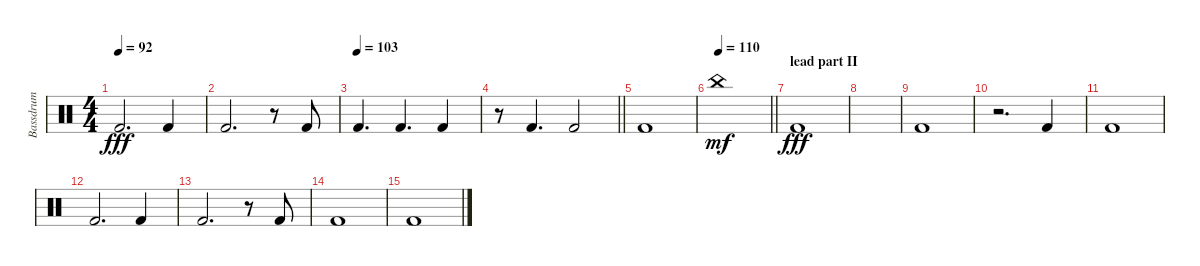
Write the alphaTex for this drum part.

\track ("Bassdrum" "Bassdrum") {instrument percussion}
\staff {score}
\articulation defaults
\ts (4 4)
\tempo 92
\clef neutral
\ks c "Kick (hit) 2".2{d dy fff} "Kick (hit) 2".4
|
"Kick (hit) 2".2{d} r.8 "Kick (hit) 2".8 |
\tempo (103)
"Kick (hit) 2".4{d} "Kick (hit) 2".4{d} "Kick (hit) 2".4 |
\barLineRight lightlight
r.8 "Kick (hit) 2".4{d} "Kick (hit) 2".2 |
\section ("" "")
"Kick (hit) 2".1 |
\tempo 110
\barLineRight lightlight "China (hit)".1{dy mf}
|
\section ("" "lead part II")
"Kick (hit) 2".1{dy fff} |
|
"Kick (hit) 2".1 |
r.2{d} "Kick (hit) 2".4 |
"Kick (hit) 2".1 |
"Kick (hit) 2".2{d} "Kick (hit) 2".4 |
"Kick (hit) 2".2{d} r.8 "Kick (hit) 2".8 |
"Kick (hit) 2".1 |
"Kick (hit) 2".1
